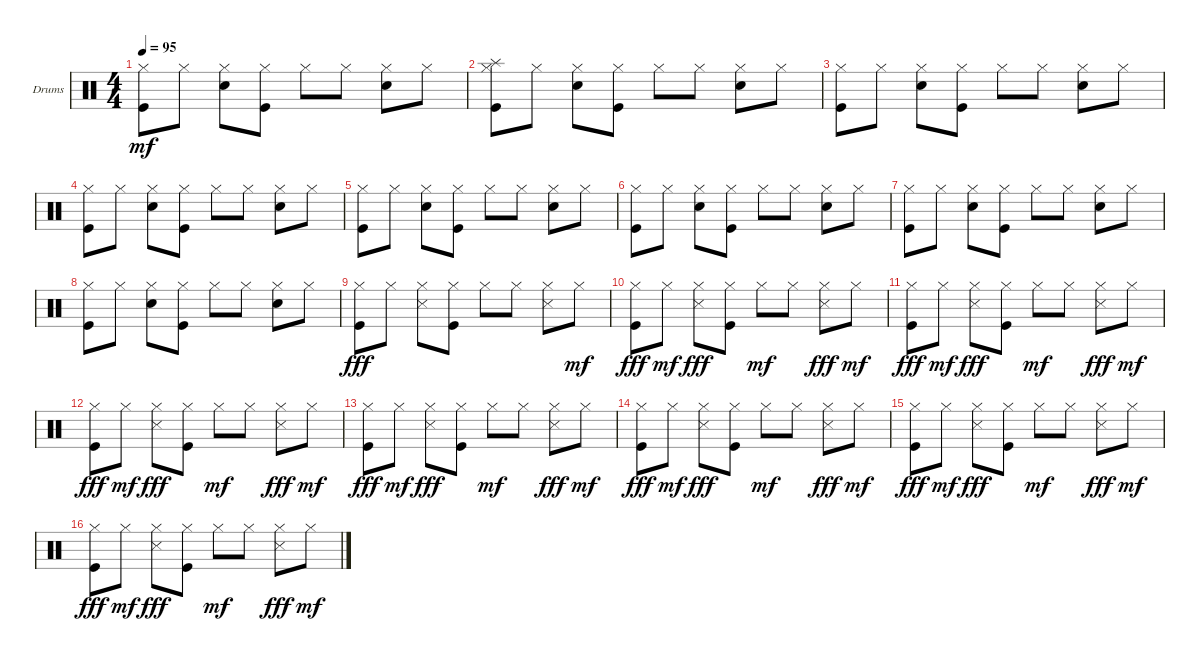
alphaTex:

\bracketExtendMode groupsimilarinstruments
\firstSystemTrackNameOrientation horizontal
\otherSystemsTrackNameOrientation horizontal
\track ("Drumkit" "Drums") {instrument percussion}
\staff {score}
\articulation defaults
\ts (4 4)
\tempo 95
\clef neutral
\ks c
("Hi-Hat (closed)" "Kick (hit)").8{dy mf} "Hi-Hat (closed)".8 ("Hi-Hat (closed)" "Snare (hit) 2").8 ("Hi-Hat (closed)" "Kick (hit)").8 "Hi-Hat (closed)".8 "Hi-Hat (closed)".8 ("Hi-Hat (closed)" "Snare (hit) 2").8 "Hi-Hat (closed)".8 |
("Hi-Hat (closed)" "Kick (hit)" "Splash (hit)").8 "Hi-Hat (closed)".8 ("Hi-Hat (closed)" "Snare (hit) 2").8 ("Hi-Hat (closed)" "Kick (hit)").8 "Hi-Hat (closed)".8 "Hi-Hat (closed)".8 ("Hi-Hat (closed)" "Snare (hit) 2").8 "Hi-Hat (closed)".8 |
("Hi-Hat (closed)" "Kick (hit)").8 "Hi-Hat (closed)".8 ("Hi-Hat (closed)" "Snare (hit) 2").8 ("Hi-Hat (closed)" "Kick (hit)").8 "Hi-Hat (closed)".8 "Hi-Hat (closed)".8 ("Hi-Hat (closed)" "Snare (hit) 2").8 "Hi-Hat (closed)".8 |
("Hi-Hat (closed)" "Kick (hit)").8 "Hi-Hat (closed)".8 ("Hi-Hat (closed)" "Snare (hit) 2").8 ("Hi-Hat (closed)" "Kick (hit)").8 "Hi-Hat (closed)".8 "Hi-Hat (closed)".8 ("Hi-Hat (closed)" "Snare (hit) 2").8 "Hi-Hat (closed)".8 |
("Hi-Hat (closed)" "Kick (hit)").8 "Hi-Hat (closed)".8 ("Hi-Hat (closed)" "Snare (hit) 2").8 ("Hi-Hat (closed)" "Kick (hit)").8 "Hi-Hat (closed)".8 "Hi-Hat (closed)".8 ("Hi-Hat (closed)" "Snare (hit) 2").8 "Hi-Hat (closed)".8 |
("Hi-Hat (closed)" "Kick (hit)").8 "Hi-Hat (closed)".8 ("Hi-Hat (closed)" "Snare (hit) 2").8 ("Hi-Hat (closed)" "Kick (hit)").8 "Hi-Hat (closed)".8 "Hi-Hat (closed)".8 ("Hi-Hat (closed)" "Snare (hit) 2").8 "Hi-Hat (closed)".8 |
("Hi-Hat (closed)" "Kick (hit)").8 "Hi-Hat (closed)".8 ("Hi-Hat (closed)" "Snare (hit) 2").8 ("Hi-Hat (closed)" "Kick (hit)").8 "Hi-Hat (closed)".8 "Hi-Hat (closed)".8 ("Hi-Hat (closed)" "Snare (hit) 2").8 "Hi-Hat (closed)".8 |
("Hi-Hat (closed)" "Kick (hit)").8 "Hi-Hat (closed)".8 ("Hi-Hat (closed)" "Snare (hit) 2").8 ("Hi-Hat (closed)" "Kick (hit)").8 "Hi-Hat (closed)".8 "Hi-Hat (closed)".8 ("Hi-Hat (closed)" "Snare (hit) 2").8 "Hi-Hat (closed)".8 |
("Kick (hit)" "Hi-Hat (closed)").8{dy fff} "Hi-Hat (closed)".8 ("Snare (side stick) 3" "Hi-Hat (closed)").8 ("Kick (hit)" "Hi-Hat (closed)").8 "Hi-Hat (closed)".8 "Hi-Hat (closed)".8 ("Snare (side stick) 3" "Hi-Hat (closed)").8 "Hi-Hat (closed)".8{dy mf} |
("Kick (hit)" "Hi-Hat (closed)").8{dy fff} "Hi-Hat (closed)".8{dy mf} ("Snare (side stick) 3" "Hi-Hat (closed)").8{dy fff} ("Kick (hit)" "Hi-Hat (closed)").8 "Hi-Hat (closed)".8{dy mf} "Hi-Hat (closed)".8 ("Snare (side stick) 3" "Hi-Hat (closed)").8{dy fff} "Hi-Hat (closed)".8{dy mf} |
("Kick (hit)" "Hi-Hat (closed)").8{dy fff} "Hi-Hat (closed)".8{dy mf} ("Snare (side stick) 3" "Hi-Hat (closed)").8{dy fff} ("Kick (hit)" "Hi-Hat (closed)").8 "Hi-Hat (closed)".8{dy mf} "Hi-Hat (closed)".8 ("Snare (side stick) 3" "Hi-Hat (closed)").8{dy fff} "Hi-Hat (closed)".8{dy mf} |
("Kick (hit)" "Hi-Hat (closed)").8{dy fff} "Hi-Hat (closed)".8{dy mf} ("Snare (side stick) 3" "Hi-Hat (closed)").8{dy fff} ("Kick (hit)" "Hi-Hat (closed)").8 "Hi-Hat (closed)".8{dy mf} "Hi-Hat (closed)".8 ("Snare (side stick) 3" "Hi-Hat (closed)").8{dy fff} "Hi-Hat (closed)".8{dy mf} |
("Kick (hit)" "Hi-Hat (closed)").8{dy fff} "Hi-Hat (closed)".8{dy mf} ("Snare (side stick) 3" "Hi-Hat (closed)").8{dy fff} ("Kick (hit)" "Hi-Hat (closed)").8 "Hi-Hat (closed)".8{dy mf} "Hi-Hat (closed)".8 ("Snare (side stick) 3" "Hi-Hat (closed)").8{dy fff} "Hi-Hat (closed)".8{dy mf} |
("Kick (hit)" "Hi-Hat (closed)").8{dy fff} "Hi-Hat (closed)".8{dy mf} ("Snare (side stick) 3" "Hi-Hat (closed)").8{dy fff} ("Kick (hit)" "Hi-Hat (closed)").8 "Hi-Hat (closed)".8{dy mf} "Hi-Hat (closed)".8 ("Snare (side stick) 3" "Hi-Hat (closed)").8{dy fff} "Hi-Hat (closed)".8{dy mf} |
("Kick (hit)" "Hi-Hat (closed)").8{dy fff} "Hi-Hat (closed)".8{dy mf} ("Snare (side stick) 3" "Hi-Hat (closed)").8{dy fff} ("Kick (hit)" "Hi-Hat (closed)").8 "Hi-Hat (closed)".8{dy mf} "Hi-Hat (closed)".8 ("Snare (side stick) 3" "Hi-Hat (closed)").8{dy fff} "Hi-Hat (closed)".8{dy mf} |
("Kick (hit)" "Hi-Hat (closed)").8{dy fff} "Hi-Hat (closed)".8{dy mf} ("Snare (side stick) 3" "Hi-Hat (closed)").8{dy fff} ("Kick (hit)" "Hi-Hat (closed)").8 "Hi-Hat (closed)".8{dy mf} "Hi-Hat (closed)".8 ("Snare (side stick) 3" "Hi-Hat (closed)").8{dy fff} "Hi-Hat (closed)".8{dy mf}
